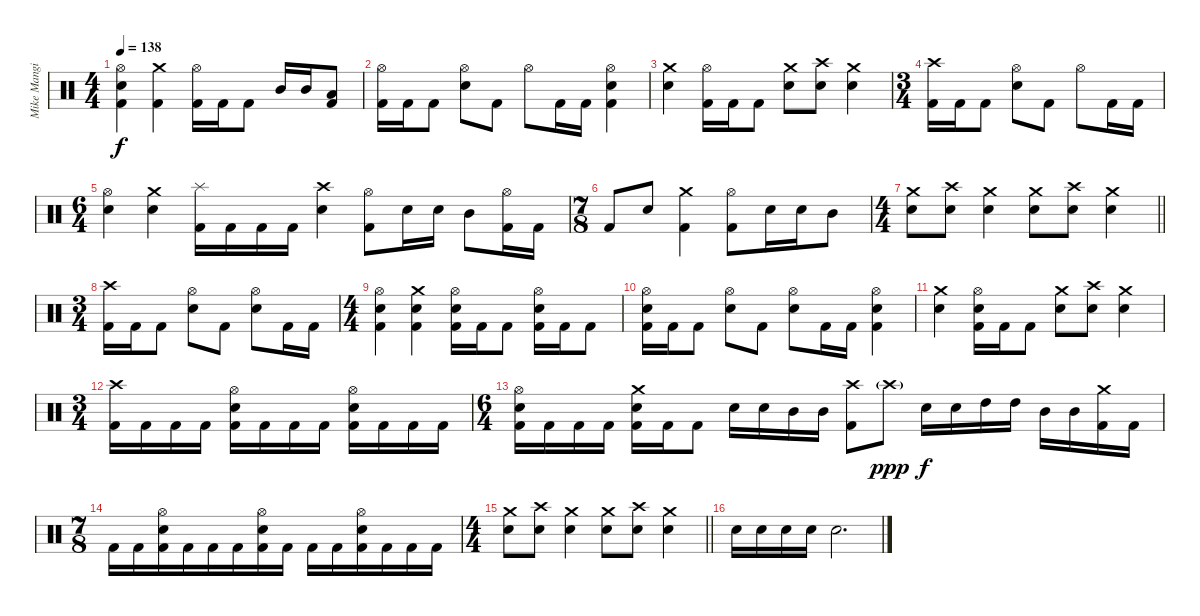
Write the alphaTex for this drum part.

\track ("Mike Mangini" "Mike Mangi") {instrument percussion}
\staff {score}
\articulation defaults
\ts (4 4)
\tempo 138
\clef neutral
\ks c
("Hi-Hat (open)" "Electric Snare (hit)" "Kick (hit) 2").4{dy f} ("Crash medium (hit)" "Kick (hit) 2").4 ("Hi-Hat (open)" "Kick (hit) 2").16 "Kick (hit) 2".16 "Kick (hit) 2".8 "Mid Tom (hit)".16 "Mid Tom (hit)".16 ("Low Tom (hit)" "Kick (hit) 2").8 |
("Hi-Hat (open)" "Kick (hit) 2").16 "Kick (hit) 2".16 "Kick (hit) 2".8 ("Hi-Hat (open)" "Electric Snare (hit)").8 "Kick (hit) 2".8 "Hi-Hat (open)".8 "Kick (hit) 2".16 "Kick (hit) 2".16 ("Hi-Hat (open)" "Electric Snare (hit)" "Kick (hit) 2").4 |
("Crash medium (hit)" "Electric Snare (hit)").4 ("Hi-Hat (open)" "Kick (hit) 2").16 "Kick (hit) 2".16 "Kick (hit) 2".8 ("Crash medium (hit)" "Electric Snare (hit)").8 ("Crash high (hit)" "Electric Snare (hit)").8 ("Crash medium (hit)" "Electric Snare (hit)").4 |
\ts (3 4)
("Crash high (hit)" "Kick (hit) 2").16 "Kick (hit) 2".16 "Kick (hit) 2".8 ("Hi-Hat (open)" "Electric Snare (hit)").8 "Kick (hit) 2".8 "Hi-Hat (open)".8 "Kick (hit) 2".16 "Kick (hit) 2".16 |
\ts (6 4)
("Hi-Hat (open)" "Electric Snare (hit)").4 ("Crash medium (hit)" "Electric Snare (hit)").4 ("Splash (hit)" "Kick (hit) 2").16 "Kick (hit) 2".16 "Kick (hit) 2".16 "Kick (hit) 2".16 ("Crash high (hit)" "Electric Snare (hit)").4 ("Hi-Hat (open)" "Kick (hit) 2").8 "Electric Snare (hit)".16 "Electric Snare (hit)".16 "Mid Tom (hit)".8 ("Hi-Hat (open)" "Kick (hit) 2").16 "Kick (hit) 2".16 |
\ts (7 8)
"Kick (hit) 2".8 "Electric Snare (hit)".8 ("Crash medium (hit)" "Kick (hit) 2").4 ("Hi-Hat (open)" "Kick (hit) 2").8 "Electric Snare (hit)".16 "Electric Snare (hit)".16 "Mid Tom (hit)".8 |
\ts (4 4)
\barLineRight lightlight
("Crash medium (hit)" "Electric Snare (hit)").8 ("Crash high (hit)" "Electric Snare (hit)").8 ("Crash medium (hit)" "Electric Snare (hit)").4 ("Crash medium (hit)" "Electric Snare (hit)").8 ("Crash high (hit)" "Electric Snare (hit)").8 ("Crash medium (hit)" "Electric Snare (hit)").4 |
\ts (3 4)
("Crash high (hit)" "Kick (hit) 2").16 "Kick (hit) 2".16 "Kick (hit) 2".8 ("Hi-Hat (open)" "Electric Snare (hit)").8 "Kick (hit) 2".8 ("Hi-Hat (open)" "Electric Snare (hit)").8 "Kick (hit) 2".16 "Kick (hit) 2".16 |
\ts (4 4)
("Hi-Hat (open)" "Electric Snare (hit)" "Kick (hit) 2").4 ("Crash medium (hit)" "Electric Snare (hit)" "Kick (hit) 2").4 ("Hi-Hat (open)" "Electric Snare (hit)" "Kick (hit) 2").16 "Kick (hit) 2".16 "Kick (hit) 2".8 ("Hi-Hat (open)" "Electric Snare (hit)" "Kick (hit) 2").16 "Kick (hit) 2".16 "Kick (hit) 2".8 |
("Hi-Hat (open)" "Electric Snare (hit)" "Kick (hit) 2").16 "Kick (hit) 2".16 "Kick (hit) 2".8 ("Hi-Hat (open)" "Electric Snare (hit)").8 "Kick (hit) 2".8 ("Hi-Hat (open)" "Electric Snare (hit)").8 "Kick (hit) 2".16 "Kick (hit) 2".16 ("Hi-Hat (open)" "Electric Snare (hit)" "Kick (hit) 2").4 |
("Crash medium (hit)" "Electric Snare (hit)").4 ("Hi-Hat (open)" "Electric Snare (hit)" "Kick (hit) 2").16 "Kick (hit) 2".16 "Kick (hit) 2".8 ("Crash medium (hit)" "Electric Snare (hit)").8 ("Crash high (hit)" "Electric Snare (hit)").8 ("Crash medium (hit)" "Electric Snare (hit)").4 |
\ts (3 4)
("Crash high (hit)" "Kick (hit) 2").16 "Kick (hit) 2".16 "Kick (hit) 2".16 "Kick (hit) 2".16 ("Hi-Hat (open)" "Electric Snare (hit)" "Kick (hit) 2").16 "Kick (hit) 2".16 "Kick (hit) 2".16 "Kick (hit) 2".16 ("Hi-Hat (open)" "Electric Snare (hit)" "Kick (hit) 2").16 "Kick (hit) 2".16 "Kick (hit) 2".16 "Kick (hit) 2".16 |
\ts (6 4)
("Hi-Hat (open)" "Electric Snare (hit)" "Kick (hit) 2").16 "Kick (hit) 2".16 "Kick (hit) 2".16 "Kick (hit) 2".16 ("Crash medium (hit)" "Electric Snare (hit)" "Kick (hit) 2").16 "Kick (hit) 2".16 "Kick (hit) 2".8 "Electric Snare (hit)".16 "Electric Snare (hit)".16 "Mid Tom (hit)".16 "Mid Tom (hit)".16 ("Crash high (hit)" "Kick (hit) 2").8 "Crash high (hit)"{g}.8{dy ppp} "Electric Snare (hit)".16{dy f} "Electric Snare (hit)".16 "High Tom (hit)".16 "High Tom (hit)".16 "Mid Tom (hit)".16 "Mid Tom (hit)".16 ("Crash medium (hit)" "Kick (hit) 2").16 "Kick (hit) 2".16 |
\ts (7 8)
"Kick (hit) 2".16 "Kick (hit) 2".16 ("Hi-Hat (open)" "Electric Snare (hit)" "Kick (hit) 2").16 "Kick (hit) 2".16 "Kick (hit) 2".16 "Kick (hit) 2".16 ("Hi-Hat (open)" "Electric Snare (hit)" "Kick (hit) 2").16 "Kick (hit) 2".16 "Kick (hit) 2".16 "Kick (hit) 2".16 ("Hi-Hat (open)" "Electric Snare (hit)" "Kick (hit) 2").16 "Kick (hit) 2".16 "Kick (hit) 2".16 "Kick (hit) 2".16 |
\ts (4 4)
\barLineRight lightlight
("Crash medium (hit)" "Electric Snare (hit)").8 ("Crash high (hit)" "Electric Snare (hit)").8 ("Crash medium (hit)" "Electric Snare (hit)").4 ("Crash medium (hit)" "Electric Snare (hit)").8 ("Crash high (hit)" "Electric Snare (hit)").8 ("Crash medium (hit)" "Electric Snare (hit)").4 |
"Electric Snare (hit)".16 "Electric Snare (hit)".16 "Electric Snare (hit)".16 "Electric Snare (hit)".16 "Electric Snare (hit)".2{d}
